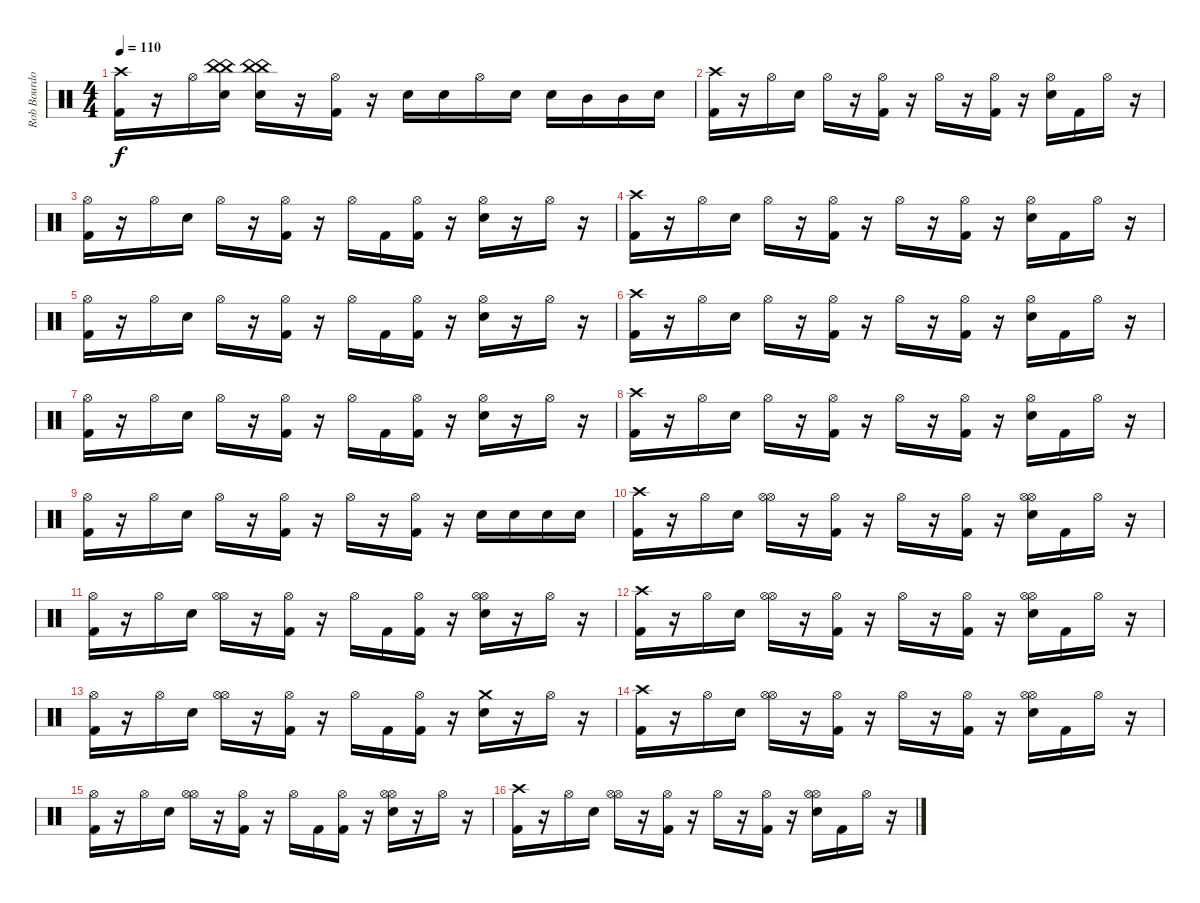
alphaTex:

\track ("Rob Bourdon (Drums)" "Rob Bourdo") {instrument percussion}
\staff {score}
\articulation defaults
\ts (4 4)
\tempo 110
\clef neutral
\ks c
("Crash high (hit)" "Kick (hit) 2").16{dy f} r.16 "Hi-Hat (open)".16 ("China (hit)" "China (hit)" "Electric Snare (hit)").16 ("China (hit)" "China (hit)" "Electric Snare (hit)").16 r.16 ("Hi-Hat (open)" "Kick (hit) 2").16 r.16 "Electric Snare (hit)".16 "Electric Snare (hit)".16 "Hi-Hat (open)".16 "Electric Snare (hit)".16 "Electric Snare (hit)".16 "Mid Tom (hit)".16 "Mid Tom (hit)".16 "Electric Snare (hit)".16 |
("Crash high (hit)" "Kick (hit) 2").16 r.16 "Hi-Hat (open)".16 "Electric Snare (hit)".16 "Hi-Hat (open)".16 r.16 ("Hi-Hat (open)" "Kick (hit) 2").16 r.16 "Hi-Hat (open)".16 r.16 ("Hi-Hat (open)" "Kick (hit) 2").16 r.16 ("Hi-Hat (open)" "Electric Snare (hit)").16 "Kick (hit) 2".16 "Hi-Hat (open)".16 r.16 |
("Hi-Hat (open)" "Kick (hit) 2").16 r.16 "Hi-Hat (open)".16 "Electric Snare (hit)".16 "Hi-Hat (open)".16 r.16 ("Hi-Hat (open)" "Kick (hit) 2").16 r.16 "Hi-Hat (open)".16 "Kick (hit) 2".16 ("Hi-Hat (open)" "Kick (hit) 2").16 r.16 ("Hi-Hat (open)" "Electric Snare (hit)").16 r.16 "Hi-Hat (open)".16 r.16 |
("Crash high (hit)" "Kick (hit) 2").16 r.16 "Hi-Hat (open)".16 "Electric Snare (hit)".16 "Hi-Hat (open)".16 r.16 ("Hi-Hat (open)" "Kick (hit) 2").16 r.16 "Hi-Hat (open)".16 r.16 ("Hi-Hat (open)" "Kick (hit) 2").16 r.16 ("Hi-Hat (open)" "Electric Snare (hit)").16 "Kick (hit) 2".16 "Hi-Hat (open)".16 r.16 |
("Hi-Hat (open)" "Kick (hit) 2").16 r.16 "Hi-Hat (open)".16 "Electric Snare (hit)".16 "Hi-Hat (open)".16 r.16 ("Hi-Hat (open)" "Kick (hit) 2").16 r.16 "Hi-Hat (open)".16 "Kick (hit) 2".16 ("Hi-Hat (open)" "Kick (hit) 2").16 r.16 ("Hi-Hat (open)" "Electric Snare (hit)").16 r.16 "Hi-Hat (open)".16 r.16 |
("Crash high (hit)" "Kick (hit) 2").16 r.16 "Hi-Hat (open)".16 "Electric Snare (hit)".16 "Hi-Hat (open)".16 r.16 ("Hi-Hat (open)" "Kick (hit) 2").16 r.16 "Hi-Hat (open)".16 r.16 ("Hi-Hat (open)" "Kick (hit) 2").16 r.16 ("Hi-Hat (open)" "Electric Snare (hit)").16 "Kick (hit) 2".16 "Hi-Hat (open)".16 r.16 |
("Hi-Hat (open)" "Kick (hit) 2").16 r.16 "Hi-Hat (open)".16 "Electric Snare (hit)".16 "Hi-Hat (open)".16 r.16 ("Hi-Hat (open)" "Kick (hit) 2").16 r.16 "Hi-Hat (open)".16 "Kick (hit) 2".16 ("Hi-Hat (open)" "Kick (hit) 2").16 r.16 ("Hi-Hat (open)" "Electric Snare (hit)").16 r.16 "Hi-Hat (open)".16 r.16 |
("Crash high (hit)" "Kick (hit) 2").16 r.16 "Hi-Hat (open)".16 "Electric Snare (hit)".16 "Hi-Hat (open)".16 r.16 ("Hi-Hat (open)" "Kick (hit) 2").16 r.16 "Hi-Hat (open)".16 r.16 ("Hi-Hat (open)" "Kick (hit) 2").16 r.16 ("Hi-Hat (open)" "Electric Snare (hit)").16 "Kick (hit) 2".16 "Hi-Hat (open)".16 r.16 |
("Hi-Hat (open)" "Kick (hit) 2").16 r.16 "Hi-Hat (open)".16 "Electric Snare (hit)".16 "Hi-Hat (open)".16 r.16 ("Hi-Hat (open)" "Kick (hit) 2").16 r.16 "Hi-Hat (open)".16 r.16 ("Hi-Hat (open)" "Kick (hit) 2").16 r.16 "Electric Snare (hit)".16 "Electric Snare (hit)".16 "Electric Snare (hit)".16 "Electric Snare (hit)".16 |
("Crash high (hit)" "Kick (hit) 2").16 r.16 "Hi-Hat (open)".16 "Electric Snare (hit)".16 ("Hi-Hat (open)" "Hi-Hat (open)").16 r.16 ("Hi-Hat (open)" "Kick (hit) 2").16 r.16 "Hi-Hat (open)".16 r.16 ("Hi-Hat (open)" "Kick (hit) 2").16 r.16 ("Hi-Hat (open)" "Hi-Hat (open)" "Electric Snare (hit)").16 "Kick (hit) 2".16 "Hi-Hat (open)".16 r.16 |
("Hi-Hat (open)" "Kick (hit) 2").16 r.16 "Hi-Hat (open)".16 "Electric Snare (hit)".16 ("Hi-Hat (open)" "Hi-Hat (open)").16 r.16 ("Hi-Hat (open)" "Kick (hit) 2").16 r.16 "Hi-Hat (open)".16 "Kick (hit) 2".16 ("Hi-Hat (open)" "Kick (hit) 2").16 r.16 ("Hi-Hat (open)" "Hi-Hat (open)" "Electric Snare (hit)").16 r.16 "Hi-Hat (open)".16 r.16 |
("Crash high (hit)" "Kick (hit) 2").16 r.16 "Hi-Hat (open)".16 "Electric Snare (hit)".16 ("Hi-Hat (open)" "Hi-Hat (open)").16 r.16 ("Hi-Hat (open)" "Kick (hit) 2").16 r.16 "Hi-Hat (open)".16 r.16 ("Hi-Hat (open)" "Kick (hit) 2").16 r.16 ("Hi-Hat (open)" "Hi-Hat (open)" "Electric Snare (hit)").16 "Kick (hit) 2".16 "Hi-Hat (open)".16 r.16 |
("Hi-Hat (open)" "Kick (hit) 2").16 r.16 "Hi-Hat (open)".16 "Electric Snare (hit)".16 ("Hi-Hat (open)" "Hi-Hat (open)").16 r.16 ("Hi-Hat (open)" "Kick (hit) 2").16 r.16 "Hi-Hat (open)".16 "Kick (hit) 2".16 ("Hi-Hat (open)" "Kick (hit) 2").16 r.16 ("Crash medium (hit)" "Electric Snare (hit)").16 r.16 "Hi-Hat (open)".16 r.16 |
("Crash high (hit)" "Kick (hit) 2").16 r.16 "Hi-Hat (open)".16 "Electric Snare (hit)".16 ("Hi-Hat (open)" "Hi-Hat (open)").16 r.16 ("Hi-Hat (open)" "Kick (hit) 2").16 r.16 "Hi-Hat (open)".16 r.16 ("Hi-Hat (open)" "Kick (hit) 2").16 r.16 ("Hi-Hat (open)" "Hi-Hat (open)" "Electric Snare (hit)").16 "Kick (hit) 2".16 "Hi-Hat (open)".16 r.16 |
("Hi-Hat (open)" "Kick (hit) 2").16 r.16 "Hi-Hat (open)".16 "Electric Snare (hit)".16 ("Hi-Hat (open)" "Hi-Hat (open)").16 r.16 ("Hi-Hat (open)" "Kick (hit) 2").16 r.16 "Hi-Hat (open)".16 "Kick (hit) 2".16 ("Hi-Hat (open)" "Kick (hit) 2").16 r.16 ("Hi-Hat (open)" "Hi-Hat (open)" "Electric Snare (hit)").16 r.16 "Hi-Hat (open)".16 r.16 |
("Crash high (hit)" "Kick (hit) 2").16 r.16 "Hi-Hat (open)".16 "Electric Snare (hit)".16 ("Hi-Hat (open)" "Hi-Hat (open)").16 r.16 ("Hi-Hat (open)" "Kick (hit) 2").16 r.16 "Hi-Hat (open)".16 r.16 ("Hi-Hat (open)" "Kick (hit) 2").16 r.16 ("Hi-Hat (open)" "Hi-Hat (open)" "Electric Snare (hit)").16 "Kick (hit) 2".16 "Hi-Hat (open)".16 r.16
